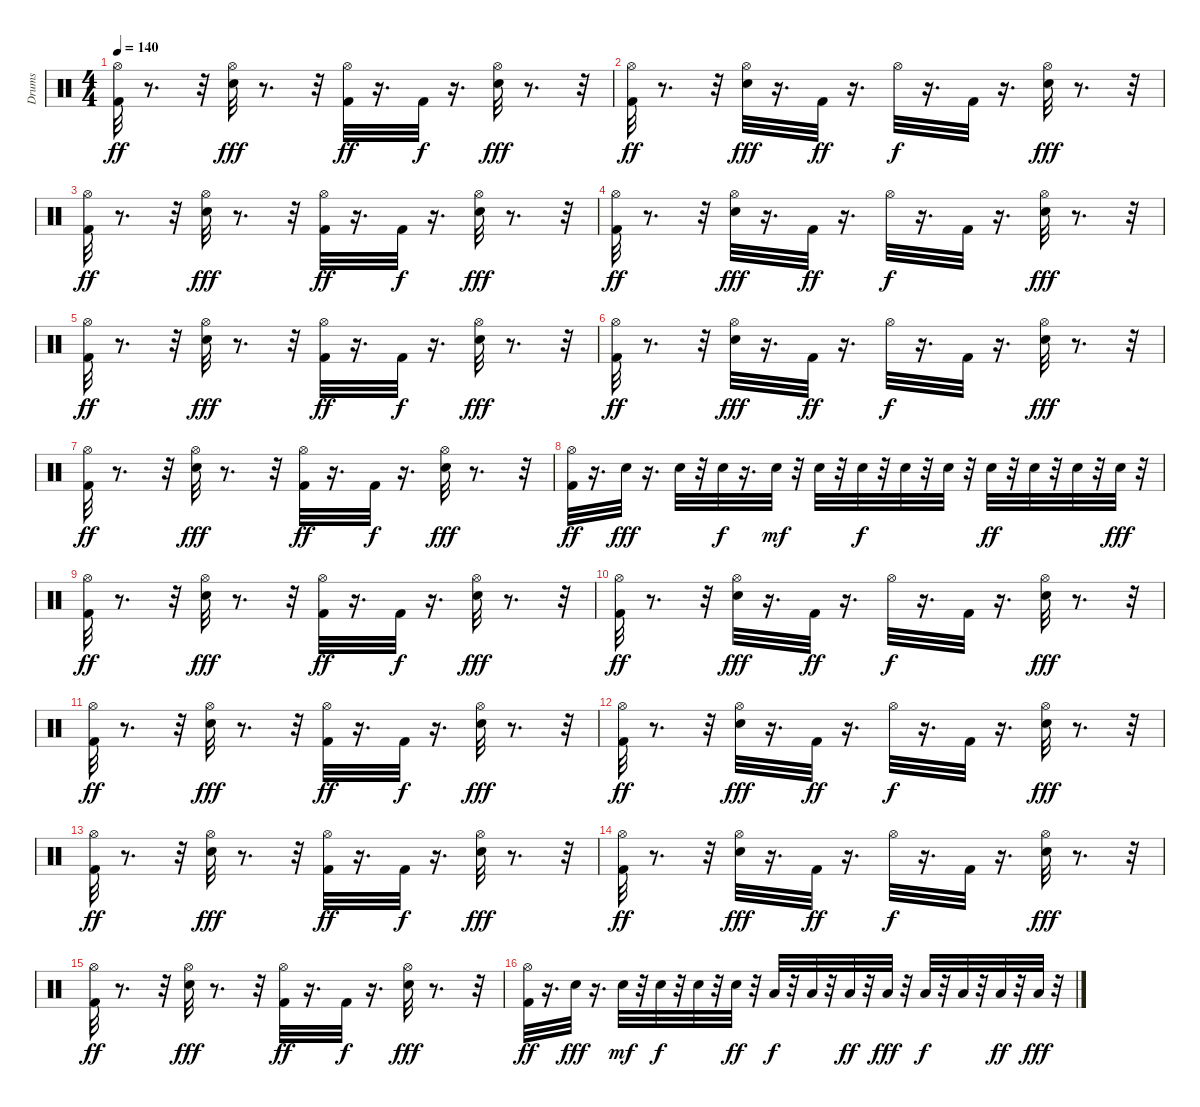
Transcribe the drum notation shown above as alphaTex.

\track ("Drums" "Drums") {instrument percussion}
\staff {score}
\articulation defaults
\ts (4 4)
\tempo 140
\clef neutral
\ks c
("Kick (hit) 2" "Hi-Hat (open)").32{dy ff} r.8{d} r.32 ("Snare (hit) 2" "Hi-Hat (open)").32{dy fff} r.8{d} r.32 ("Kick (hit) 2" "Hi-Hat (open)").32{dy ff} r.16{d} "Kick (hit) 2".32{dy f} r.16{d} ("Snare (hit) 2" "Hi-Hat (open)").32{dy fff} r.8{d} r.32 |
("Kick (hit) 2" "Hi-Hat (open)").32{dy ff} r.8{d} r.32 ("Snare (hit) 2" "Hi-Hat (open)").32{dy fff} r.16{d} "Kick (hit) 2".32{dy ff} r.16{d} "Hi-Hat (open)".32{dy f} r.16{d} "Kick (hit) 2".32 r.16{d} ("Snare (hit) 2" "Hi-Hat (open)").32{dy fff} r.8{d} r.32 |
("Kick (hit) 2" "Hi-Hat (open)").32{dy ff} r.8{d} r.32 ("Snare (hit) 2" "Hi-Hat (open)").32{dy fff} r.8{d} r.32 ("Kick (hit) 2" "Hi-Hat (open)").32{dy ff} r.16{d} "Kick (hit) 2".32{dy f} r.16{d} ("Snare (hit) 2" "Hi-Hat (open)").32{dy fff} r.8{d} r.32 |
("Kick (hit) 2" "Hi-Hat (open)").32{dy ff} r.8{d} r.32 ("Snare (hit) 2" "Hi-Hat (open)").32{dy fff} r.16{d} "Kick (hit) 2".32{dy ff} r.16{d} "Hi-Hat (open)".32{dy f} r.16{d} "Kick (hit) 2".32 r.16{d} ("Snare (hit) 2" "Hi-Hat (open)").32{dy fff} r.8{d} r.32 |
("Kick (hit) 2" "Hi-Hat (open)").32{dy ff} r.8{d} r.32 ("Snare (hit) 2" "Hi-Hat (open)").32{dy fff} r.8{d} r.32 ("Kick (hit) 2" "Hi-Hat (open)").32{dy ff} r.16{d} "Kick (hit) 2".32{dy f} r.16{d} ("Snare (hit) 2" "Hi-Hat (open)").32{dy fff} r.8{d} r.32 |
("Kick (hit) 2" "Hi-Hat (open)").32{dy ff} r.8{d} r.32 ("Snare (hit) 2" "Hi-Hat (open)").32{dy fff} r.16{d} "Kick (hit) 2".32{dy ff} r.16{d} "Hi-Hat (open)".32{dy f} r.16{d} "Kick (hit) 2".32 r.16{d} ("Snare (hit) 2" "Hi-Hat (open)").32{dy fff} r.8{d} r.32 |
("Kick (hit) 2" "Hi-Hat (open)").32{dy ff} r.8{d} r.32 ("Snare (hit) 2" "Hi-Hat (open)").32{dy fff} r.8{d} r.32 ("Kick (hit) 2" "Hi-Hat (open)").32{dy ff} r.16{d} "Kick (hit) 2".32{dy f} r.16{d} ("Snare (hit) 2" "Hi-Hat (open)").32{dy fff} r.8{d} r.32 |
("Kick (hit) 2" "Hi-Hat (open)").32{dy ff} r.16{d} "Snare (hit) 2".32{dy fff} r.16{d} "Snare (hit) 2".32 r.32 "Snare (hit) 2".32{dy f} r.16{d} "Snare (hit) 2".32{dy mf} r.32 "Snare (hit) 2".32 r.32 "Snare (hit) 2".32{dy f} r.32 "Snare (hit) 2".32 r.32 "Snare (hit) 2".32 r.32 "Snare (hit) 2".32{dy ff} r.32 "Snare (hit) 2".32 r.32 "Snare (hit) 2".32 r.32 "Snare (hit) 2".32{dy fff} r.32 |
("Kick (hit) 2" "Hi-Hat (open)").32{dy ff} r.8{d} r.32 ("Snare (hit) 2" "Hi-Hat (open)").32{dy fff} r.8{d} r.32 ("Kick (hit) 2" "Hi-Hat (open)").32{dy ff} r.16{d} "Kick (hit) 2".32{dy f} r.16{d} ("Snare (hit) 2" "Hi-Hat (open)").32{dy fff} r.8{d} r.32 |
("Kick (hit) 2" "Hi-Hat (open)").32{dy ff} r.8{d} r.32 ("Snare (hit) 2" "Hi-Hat (open)").32{dy fff} r.16{d} "Kick (hit) 2".32{dy ff} r.16{d} "Hi-Hat (open)".32{dy f} r.16{d} "Kick (hit) 2".32 r.16{d} ("Snare (hit) 2" "Hi-Hat (open)").32{dy fff} r.8{d} r.32 |
("Kick (hit) 2" "Hi-Hat (open)").32{dy ff} r.8{d} r.32 ("Snare (hit) 2" "Hi-Hat (open)").32{dy fff} r.8{d} r.32 ("Kick (hit) 2" "Hi-Hat (open)").32{dy ff} r.16{d} "Kick (hit) 2".32{dy f} r.16{d} ("Snare (hit) 2" "Hi-Hat (open)").32{dy fff} r.8{d} r.32 |
("Kick (hit) 2" "Hi-Hat (open)").32{dy ff} r.8{d} r.32 ("Snare (hit) 2" "Hi-Hat (open)").32{dy fff} r.16{d} "Kick (hit) 2".32{dy ff} r.16{d} "Hi-Hat (open)".32{dy f} r.16{d} "Kick (hit) 2".32 r.16{d} ("Snare (hit) 2" "Hi-Hat (open)").32{dy fff} r.8{d} r.32 |
("Kick (hit) 2" "Hi-Hat (open)").32{dy ff} r.8{d} r.32 ("Snare (hit) 2" "Hi-Hat (open)").32{dy fff} r.8{d} r.32 ("Kick (hit) 2" "Hi-Hat (open)").32{dy ff} r.16{d} "Kick (hit) 2".32{dy f} r.16{d} ("Snare (hit) 2" "Hi-Hat (open)").32{dy fff} r.8{d} r.32 |
("Kick (hit) 2" "Hi-Hat (open)").32{dy ff} r.8{d} r.32 ("Snare (hit) 2" "Hi-Hat (open)").32{dy fff} r.16{d} "Kick (hit) 2".32{dy ff} r.16{d} "Hi-Hat (open)".32{dy f} r.16{d} "Kick (hit) 2".32 r.16{d} ("Snare (hit) 2" "Hi-Hat (open)").32{dy fff} r.8{d} r.32 |
("Kick (hit) 2" "Hi-Hat (open)").32{dy ff} r.8{d} r.32 ("Snare (hit) 2" "Hi-Hat (open)").32{dy fff} r.8{d} r.32 ("Kick (hit) 2" "Hi-Hat (open)").32{dy ff} r.16{d} "Kick (hit) 2".32{dy f} r.16{d} ("Snare (hit) 2" "Hi-Hat (open)").32{dy fff} r.8{d} r.32 |
("Kick (hit) 2" "Hi-Hat (open)").32{dy ff} r.16{d} "Snare (hit) 2".32{dy fff} r.16{d} "Snare (hit) 2".32{dy mf} r.32 "Snare (hit) 2".32{dy f} r.32 "Snare (hit) 2".32 r.32 "Snare (hit) 2".32{dy ff} r.32 "Low Tom (hit)".32{dy f} r.32 "Low Tom (hit)".32 r.32 "Low Tom (hit)".32{dy ff} r.32 "Low Tom (hit)".32{dy fff} r.32 "Low Floor Tom (hit)".32{dy f} r.32 "Low Floor Tom (hit)".32 r.32 "Low Floor Tom (hit)".32{dy ff} r.32 "Low Floor Tom (hit)".32{dy fff} r.32
